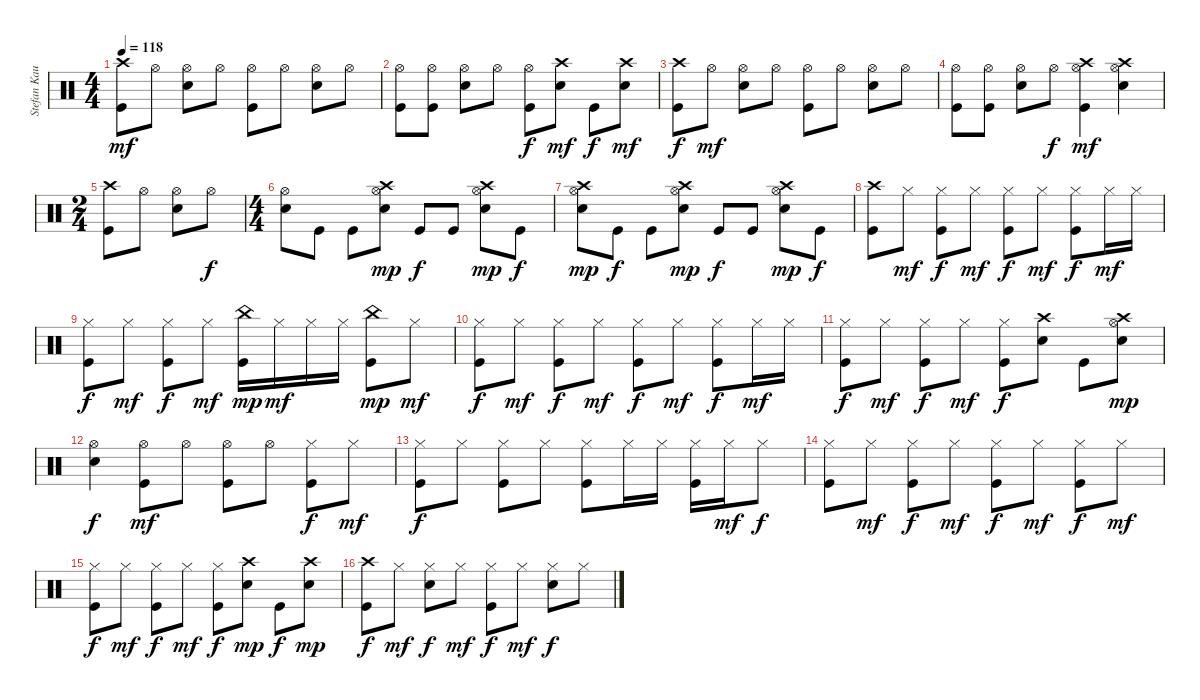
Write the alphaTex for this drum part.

\track ("Stefan Kaufmann" "Stefan Kau") {instrument percussion}
\staff {score}
\articulation defaults
\ts (4 4)
\tempo 118
\clef neutral
\ks c
("Crash high (hit)" "Kick (hit)").8{dy mf} "Hi-Hat (open)".8 ("Hi-Hat (open)" "Snare (hit) 2").8 "Hi-Hat (open)".8 ("Hi-Hat (open)" "Kick (hit)").8 "Hi-Hat (open)".8 ("Hi-Hat (open)" "Snare (hit) 2").8 "Hi-Hat (open)".8 |
("Hi-Hat (open)" "Kick (hit)").8 ("Hi-Hat (open)" "Kick (hit)").8 ("Hi-Hat (open)" "Snare (hit) 2").8 "Hi-Hat (open)".8 ("Hi-Hat (open)" "Kick (hit)").8{dy f} ("Snare (hit) 2" "Crash high (hit)").8{dy mf} "Kick (hit)".8{dy f} ("Snare (hit) 2" "Crash high (hit)").8{dy mf} |
("Crash high (hit)" "Kick (hit)").8{dy f} "Hi-Hat (open)".8{dy mf} ("Hi-Hat (open)" "Snare (hit) 2").8 "Hi-Hat (open)".8 ("Hi-Hat (open)" "Kick (hit)").8 "Hi-Hat (open)".8 ("Hi-Hat (open)" "Snare (hit) 2").8 "Hi-Hat (open)".8 |
("Hi-Hat (open)" "Kick (hit)").8 ("Hi-Hat (open)" "Kick (hit)").8 ("Hi-Hat (open)" "Snare (hit) 2").8 "Hi-Hat (open)".8{dy f} ("Hi-Hat (open)" "Kick (hit)" "Crash high (hit)").4{dy mf} ("Hi-Hat (open)" "Snare (hit) 2" "Crash high (hit)").4 |
\ts (2 4)
("Crash high (hit)" "Kick (hit)").8 "Hi-Hat (open)".8 ("Hi-Hat (open)" "Snare (hit) 2").8 "Hi-Hat (open)".8{dy f} |
\ts (4 4)
("Hi-Hat (open)" "Snare (hit) 2").8 "Kick (hit)".8 "Kick (hit)".8 ("Hi-Hat (open)" "Crash high (hit)" "Snare (hit) 2").8{dy mp} "Kick (hit)".8{dy f} "Kick (hit)".8 ("Hi-Hat (open)" "Crash high (hit)" "Snare (hit) 2").8{dy mp} "Kick (hit)".8{dy f} |
("Hi-Hat (open)" "Crash high (hit)" "Snare (hit) 2").8{dy mp} "Kick (hit)".8{dy f} "Kick (hit)".8 ("Hi-Hat (open)" "Crash high (hit)" "Snare (hit) 2").8{dy mp} "Kick (hit)".8{dy f} "Kick (hit)".8 ("Hi-Hat (open)" "Crash high (hit)" "Snare (hit) 2").8{dy mp} "Kick (hit)".8{dy f} |
("Crash high (hit)" "Kick (hit)").8 "Hi-Hat (closed)".8{dy mf} ("Hi-Hat (closed)" "Kick (hit)").8{dy f} "Hi-Hat (closed)".8{dy mf} ("Hi-Hat (closed)" "Kick (hit)").8{dy f} "Hi-Hat (closed)".8{dy mf} ("Hi-Hat (closed)" "Kick (hit)").8{dy f} "Hi-Hat (closed)".16{dy mf} "Hi-Hat (closed)".16 |
("Hi-Hat (closed)" "Kick (hit)").8{dy f} "Hi-Hat (closed)".8{dy mf} ("Hi-Hat (closed)" "Kick (hit)").8{dy f} "Hi-Hat (closed)".8{dy mf} ("China (hit)" "Kick (hit)").16{dy mp} "Hi-Hat (closed)".16{dy mf} "Hi-Hat (closed)".16 "Hi-Hat (closed)".16 ("China (hit)" "Kick (hit)").8{dy mp} "Hi-Hat (closed)".8{dy mf} |
("Hi-Hat (closed)" "Kick (hit)").8{dy f} "Hi-Hat (closed)".8{dy mf} ("Hi-Hat (closed)" "Kick (hit)").8{dy f} "Hi-Hat (closed)".8{dy mf} ("Hi-Hat (closed)" "Kick (hit)").8{dy f} "Hi-Hat (closed)".8{dy mf} ("Hi-Hat (closed)" "Kick (hit)").8{dy f} "Hi-Hat (closed)".16{dy mf} "Hi-Hat (closed)".16 |
("Hi-Hat (closed)" "Kick (hit)").8{dy f} "Hi-Hat (closed)".8{dy mf} ("Hi-Hat (closed)" "Kick (hit)").8{dy f} "Hi-Hat (closed)".8{dy mf} ("Hi-Hat (closed)" "Kick (hit)").8{dy f} ("Crash high (hit)" "Snare (hit) 2").8 "Kick (hit)".8 ("Crash high (hit)" "Hi-Hat (open)" "Snare (hit) 2").8{dy mp} |
("Hi-Hat (open)" "Snare (hit) 2").4{dy f} ("Hi-Hat (open)" "Kick (hit)").8{dy mf} "Hi-Hat (open)".8 ("Hi-Hat (open)" "Kick (hit)").8 "Hi-Hat (open)".8 ("Hi-Hat (closed)" "Kick (hit)").8{dy f} "Hi-Hat (closed)".8{dy mf} |
("Hi-Hat (closed)" "Kick (hit)").8{dy f} "Hi-Hat (closed)".8 ("Hi-Hat (closed)" "Kick (hit)").8 "Hi-Hat (closed)".8 ("Hi-Hat (closed)" "Kick (hit)").8 "Hi-Hat (closed)".16 "Hi-Hat (closed)".16 ("Hi-Hat (closed)" "Kick (hit)").16 "Hi-Hat (closed)".16{dy mf} "Hi-Hat (closed)".8{dy f} |
("Hi-Hat (closed)" "Kick (hit)").8 "Hi-Hat (closed)".8{dy mf} ("Hi-Hat (closed)" "Kick (hit)").8{dy f} "Hi-Hat (closed)".8{dy mf} ("Hi-Hat (closed)" "Kick (hit)").8{dy f} "Hi-Hat (closed)".8{dy mf} ("Hi-Hat (closed)" "Kick (hit)").8{dy f} "Hi-Hat (closed)".8{dy mf} |
("Hi-Hat (closed)" "Kick (hit)").8{dy f} "Hi-Hat (closed)".8{dy mf} ("Hi-Hat (closed)" "Kick (hit)").8{dy f} "Hi-Hat (closed)".8{dy mf} ("Hi-Hat (closed)" "Kick (hit)").8{dy f} ("Crash high (hit)" "Snare (hit) 2").8{dy mp} "Kick (hit)".8{dy f} ("Crash high (hit)" "Snare (hit) 2").8{dy mp} |
("Crash high (hit)" "Kick (hit)").8{dy f} "Hi-Hat (closed)".8{dy mf} ("Hi-Hat (closed)" "Snare (hit) 2").8{dy f} "Hi-Hat (closed)".8{dy mf} ("Hi-Hat (closed)" "Kick (hit)").8{dy f} "Hi-Hat (closed)".8{dy mf} ("Hi-Hat (closed)" "Snare (hit) 2").8{dy f} "Hi-Hat (closed)".8
